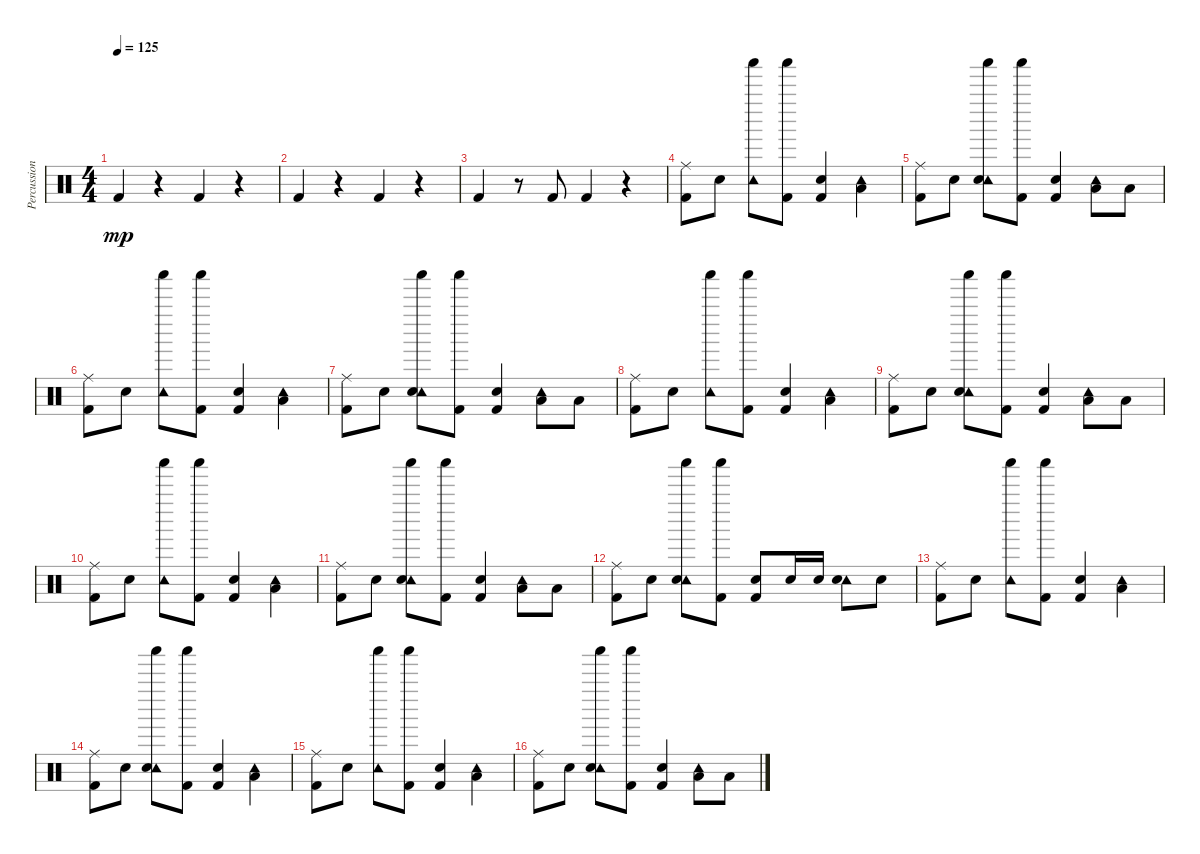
\track ("Percussion" "Percussion") {instrument percussion}
\staff {score}
\articulation defaults
\ts (4 4)
\tempo 125
\clef neutral
\ks c "Kick (hit) 2".4{dy mp}
r.4 "Kick (hit) 2".4 r.4 |
"Kick (hit) 2".4 r.4 "Kick (hit) 2".4 r.4 |
"Kick (hit) 2".4 r.8 "Kick (hit) 2".8 "Kick (hit) 2".4 r.4 |
("Ride (middle)" "Kick (hit) 2").8 "Snare (hit) 2".8 ("Shaker (hit)" "Tambourine (hit)").8 ("Shaker (hit)" "Kick (hit) 2").8 ("Kick (hit) 2" "Snare (hit) 2").4 ("Tambourine (hit)" "Low Tom (hit)").4 |
("Ride (middle)" "Kick (hit) 2").8 "Snare (hit) 2".8 ("Shaker (hit)" "Tambourine (hit)" "Snare (hit) 2").8 ("Shaker (hit)" "Kick (hit) 2").8 ("Kick (hit) 2" "Snare (hit) 2").4 ("Tambourine (hit)" "Low Tom (hit)").8 "Low Tom (hit)".8 |
("Ride (middle)" "Kick (hit) 2").8 "Snare (hit) 2".8 ("Shaker (hit)" "Tambourine (hit)").8 ("Shaker (hit)" "Kick (hit) 2").8 ("Kick (hit) 2" "Snare (hit) 2").4 ("Tambourine (hit)" "Low Tom (hit)").4 |
("Ride (middle)" "Kick (hit) 2").8 "Snare (hit) 2".8 ("Shaker (hit)" "Tambourine (hit)" "Snare (hit) 2").8 ("Shaker (hit)" "Kick (hit) 2").8 ("Kick (hit) 2" "Snare (hit) 2").4 ("Tambourine (hit)" "Low Tom (hit)").8 "Low Tom (hit)".8 |
("Ride (middle)" "Kick (hit) 2").8 "Snare (hit) 2".8 ("Shaker (hit)" "Tambourine (hit)").8 ("Shaker (hit)" "Kick (hit) 2").8 ("Kick (hit) 2" "Snare (hit) 2").4 ("Tambourine (hit)" "Low Tom (hit)").4 |
("Ride (middle)" "Kick (hit) 2").8 "Snare (hit) 2".8 ("Shaker (hit)" "Tambourine (hit)" "Snare (hit) 2").8 ("Shaker (hit)" "Kick (hit) 2").8 ("Kick (hit) 2" "Snare (hit) 2").4 ("Tambourine (hit)" "Low Tom (hit)").8 "Low Tom (hit)".8 |
("Ride (middle)" "Kick (hit) 2").8 "Snare (hit) 2".8 ("Shaker (hit)" "Tambourine (hit)").8 ("Shaker (hit)" "Kick (hit) 2").8 ("Kick (hit) 2" "Snare (hit) 2").4 ("Tambourine (hit)" "Low Tom (hit)").4 |
("Ride (middle)" "Kick (hit) 2").8 "Snare (hit) 2".8 ("Shaker (hit)" "Tambourine (hit)" "Snare (hit) 2").8 ("Shaker (hit)" "Kick (hit) 2").8 ("Kick (hit) 2" "Snare (hit) 2").4 ("Tambourine (hit)" "Low Tom (hit)").8 "Low Tom (hit)".8 |
("Ride (middle)" "Kick (hit) 2").8 "Snare (hit) 2".8 ("Shaker (hit)" "Tambourine (hit)" "Snare (hit) 2").8 ("Shaker (hit)" "Kick (hit) 2").8 ("Kick (hit) 2" "Snare (hit) 2").8 "Snare (hit) 2".16 "Snare (hit) 2".16 ("Tambourine (hit)" "Snare (hit) 2").8 "Snare (hit) 2".8 |
("Ride (middle)" "Kick (hit) 2").8 "Snare (hit) 2".8 ("Shaker (hit)" "Tambourine (hit)").8 ("Shaker (hit)" "Kick (hit) 2").8 ("Kick (hit) 2" "Snare (hit) 2").4 ("Tambourine (hit)" "Low Tom (hit)").4 |
("Ride (middle)" "Kick (hit) 2").8 "Snare (hit) 2".8 ("Shaker (hit)" "Tambourine (hit)" "Snare (hit) 2").8 ("Shaker (hit)" "Kick (hit) 2").8 ("Kick (hit) 2" "Snare (hit) 2").4 ("Tambourine (hit)" "Low Tom (hit)").4 |
("Ride (middle)" "Kick (hit) 2").8 "Snare (hit) 2".8 ("Shaker (hit)" "Tambourine (hit)").8 ("Shaker (hit)" "Kick (hit) 2").8 ("Kick (hit) 2" "Snare (hit) 2").4 ("Tambourine (hit)" "Low Tom (hit)").4 |
("Ride (middle)" "Kick (hit) 2").8 "Snare (hit) 2".8 ("Shaker (hit)" "Tambourine (hit)" "Snare (hit) 2").8 ("Shaker (hit)" "Kick (hit) 2").8 ("Kick (hit) 2" "Snare (hit) 2").4 ("Tambourine (hit)" "Low Tom (hit)").8 "Low Tom (hit)".8
